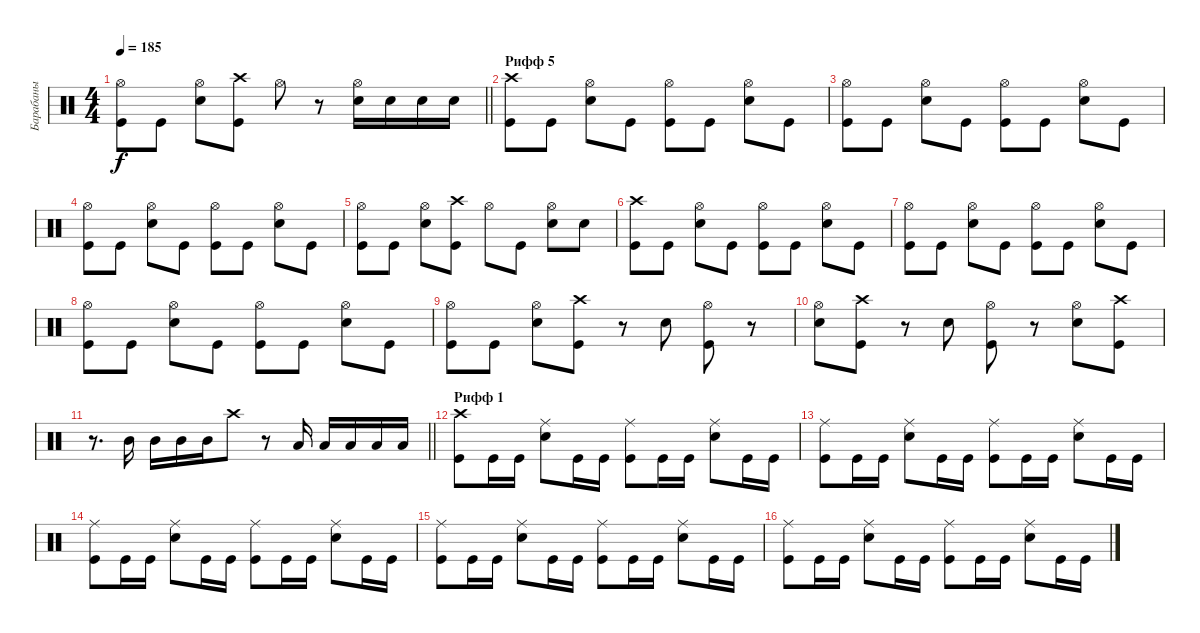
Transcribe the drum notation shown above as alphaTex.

\track ("Барабаны" "Барабаны") {instrument percussion}
\staff {score}
\articulation defaults
\ts (4 4)
\tempo 185
\clef neutral
\barLineRight lightlight
\ks c
("Kick (hit)" "Hi-Hat (open)").8{dy f} "Kick (hit)".8 ("Snare (hit) 2" "Hi-Hat (open)").8 ("Kick (hit)" "Crash high (hit)").8 "Hi-Hat (open)".8 r.8 ("Snare (hit) 2" "Hi-Hat (open)").16 "Snare (hit) 2".16 "Snare (hit) 2".16 "Snare (hit) 2".16 |
\section ("" "Рифф 5")
("Kick (hit)" "Crash high (hit)").8 "Kick (hit)".8 ("Snare (hit) 2" "Hi-Hat (open)").8 "Kick (hit)".8 ("Kick (hit)" "Hi-Hat (open)").8 "Kick (hit)".8 ("Snare (hit) 2" "Hi-Hat (open)").8 "Kick (hit)".8 |
("Kick (hit)" "Hi-Hat (open)").8 "Kick (hit)".8 ("Snare (hit) 2" "Hi-Hat (open)").8 "Kick (hit)".8 ("Kick (hit)" "Hi-Hat (open)").8 "Kick (hit)".8 ("Snare (hit) 2" "Hi-Hat (open)").8 "Kick (hit)".8 |
("Kick (hit)" "Hi-Hat (open)").8 "Kick (hit)".8 ("Snare (hit) 2" "Hi-Hat (open)").8 "Kick (hit)".8 ("Kick (hit)" "Hi-Hat (open)").8 "Kick (hit)".8 ("Snare (hit) 2" "Hi-Hat (open)").8 "Kick (hit)".8 |
("Kick (hit)" "Hi-Hat (open)").8 "Kick (hit)".8 ("Snare (hit) 2" "Hi-Hat (open)").8 ("Kick (hit)" "Crash high (hit)").8 "Hi-Hat (open)".8 "Kick (hit)".8 ("Snare (hit) 2" "Hi-Hat (open)").8 "Snare (hit) 2".8 |
("Kick (hit)" "Crash high (hit)").8 "Kick (hit)".8 ("Snare (hit) 2" "Hi-Hat (open)").8 "Kick (hit)".8 ("Kick (hit)" "Hi-Hat (open)").8 "Kick (hit)".8 ("Snare (hit) 2" "Hi-Hat (open)").8 "Kick (hit)".8 |
("Kick (hit)" "Hi-Hat (open)").8 "Kick (hit)".8 ("Snare (hit) 2" "Hi-Hat (open)").8 "Kick (hit)".8 ("Kick (hit)" "Hi-Hat (open)").8 "Kick (hit)".8 ("Snare (hit) 2" "Hi-Hat (open)").8 "Kick (hit)".8 |
("Kick (hit)" "Hi-Hat (open)").8 "Kick (hit)".8 ("Snare (hit) 2" "Hi-Hat (open)").8 "Kick (hit)".8 ("Kick (hit)" "Hi-Hat (open)").8 "Kick (hit)".8 ("Snare (hit) 2" "Hi-Hat (open)").8 "Kick (hit)".8 |
("Kick (hit)" "Hi-Hat (open)").8 "Kick (hit)".8 ("Snare (hit) 2" "Hi-Hat (open)").8 ("Kick (hit)" "Crash high (hit)").8 r.8 "Snare (hit) 2".8 ("Kick (hit)" "Hi-Hat (open)").8 r.8 |
("Snare (hit) 2" "Hi-Hat (open)").8 ("Kick (hit)" "Crash high (hit)").8 r.8 "Snare (hit) 2".8 ("Kick (hit)" "Hi-Hat (open)").8 r.8 ("Snare (hit) 2" "Hi-Hat (open)").8 ("Kick (hit)" "Crash high (hit)").8 |
\barLineRight lightlight
r.8{d} "Mid Tom (hit)".16 "Mid Tom (hit)".16 "Mid Tom (hit)".16 "Mid Tom (hit)".16 "Crash high (hit)".8 r.8 "Low Tom (hit)".16 "Low Tom (hit)".16 "Low Tom (hit)".16 "Low Tom (hit)".16 "Low Tom (hit)".16 |
\section ("" "Рифф 1")
("Kick (hit)" "Crash high (hit)").8 "Kick (hit)".16 "Kick (hit)".16 ("Snare (hit) 2" "Ride (middle)").8 "Kick (hit)".16 "Kick (hit)".16 ("Kick (hit)" "Ride (middle)").8 "Kick (hit)".16 "Kick (hit)".16 ("Snare (hit) 2" "Ride (middle)").8 "Kick (hit)".16 "Kick (hit)".16 |
("Kick (hit)" "Ride (middle)").8 "Kick (hit)".16 "Kick (hit)".16 ("Snare (hit) 2" "Ride (middle)").8 "Kick (hit)".16 "Kick (hit)".16 ("Kick (hit)" "Ride (middle)").8 "Kick (hit)".16 "Kick (hit)".16 ("Snare (hit) 2" "Ride (middle)").8 "Kick (hit)".16 "Kick (hit)".16 |
("Kick (hit)" "Ride (middle)").8 "Kick (hit)".16 "Kick (hit)".16 ("Snare (hit) 2" "Ride (middle)").8 "Kick (hit)".16 "Kick (hit)".16 ("Kick (hit)" "Ride (middle)").8 "Kick (hit)".16 "Kick (hit)".16 ("Snare (hit) 2" "Ride (middle)").8 "Kick (hit)".16 "Kick (hit)".16 |
("Kick (hit)" "Ride (middle)").8 "Kick (hit)".16 "Kick (hit)".16 ("Snare (hit) 2" "Ride (middle)").8 "Kick (hit)".16 "Kick (hit)".16 ("Kick (hit)" "Ride (middle)").8 "Kick (hit)".16 "Kick (hit)".16 ("Snare (hit) 2" "Ride (middle)").8 "Kick (hit)".16 "Kick (hit)".16 |
("Kick (hit)" "Ride (middle)").8 "Kick (hit)".16 "Kick (hit)".16 ("Snare (hit) 2" "Ride (middle)").8 "Kick (hit)".16 "Kick (hit)".16 ("Kick (hit)" "Ride (middle)").8 "Kick (hit)".16 "Kick (hit)".16 ("Snare (hit) 2" "Ride (middle)").8 "Kick (hit)".16 "Kick (hit)".16
